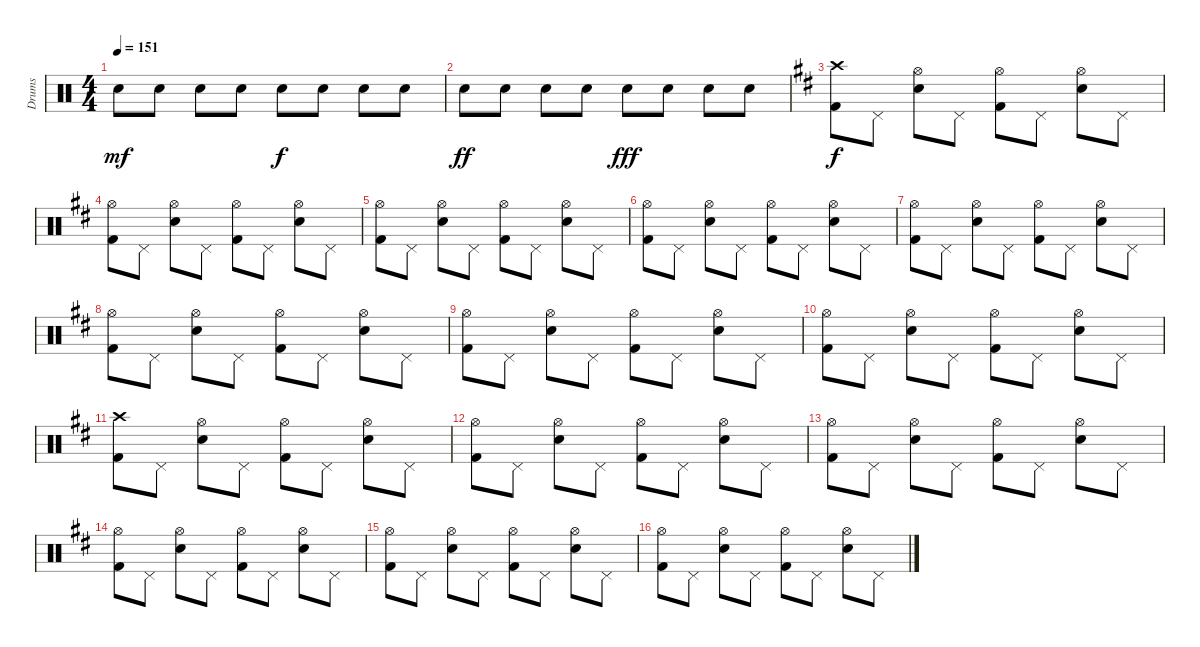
\track ("Drums" "Drums") {instrument percussion}
\staff {score}
\articulation defaults
\ts (4 4)
\tempo 151
\clef neutral
\ks c "Electric Snare (hit)".8{dy mf} "Electric Snare (hit)".8 "Electric Snare (hit)".8 "Electric Snare (hit)".8 "Electric Snare (hit)".8{dy f} "Electric Snare (hit)".8 "Electric Snare (hit)".8 "Electric Snare (hit)".8
|
"Electric Snare (hit)".8{dy ff} "Electric Snare (hit)".8 "Electric Snare (hit)".8 "Electric Snare (hit)".8 "Electric Snare (hit)".8{dy fff} "Electric Snare (hit)".8 "Electric Snare (hit)".8 "Electric Snare (hit)".8 |
\ks d
("Crash high (hit)" "Kick (hit) 2").8{dy f} "Pedal Hi-Hat (hit)".8 ("Hi-Hat (open)" "Electric Snare (hit)").8 "Pedal Hi-Hat (hit)".8 ("Hi-Hat (open)" "Kick (hit) 2").8 "Pedal Hi-Hat (hit)".8 ("Hi-Hat (open)" "Electric Snare (hit)").8 "Pedal Hi-Hat (hit)".8 |
("Hi-Hat (open)" "Kick (hit) 2").8 "Pedal Hi-Hat (hit)".8 ("Hi-Hat (open)" "Electric Snare (hit)").8 "Pedal Hi-Hat (hit)".8 ("Hi-Hat (open)" "Kick (hit) 2").8 "Pedal Hi-Hat (hit)".8 ("Hi-Hat (open)" "Electric Snare (hit)").8 "Pedal Hi-Hat (hit)".8 |
("Hi-Hat (open)" "Kick (hit) 2").8 "Pedal Hi-Hat (hit)".8 ("Hi-Hat (open)" "Electric Snare (hit)").8 "Pedal Hi-Hat (hit)".8 ("Hi-Hat (open)" "Kick (hit) 2").8 "Pedal Hi-Hat (hit)".8 ("Hi-Hat (open)" "Electric Snare (hit)").8 "Pedal Hi-Hat (hit)".8 |
("Hi-Hat (open)" "Kick (hit) 2").8 "Pedal Hi-Hat (hit)".8 ("Hi-Hat (open)" "Electric Snare (hit)").8 "Pedal Hi-Hat (hit)".8 ("Hi-Hat (open)" "Kick (hit) 2").8 "Pedal Hi-Hat (hit)".8 ("Hi-Hat (open)" "Electric Snare (hit)").8 "Pedal Hi-Hat (hit)".8 |
("Hi-Hat (open)" "Kick (hit) 2").8 "Pedal Hi-Hat (hit)".8 ("Hi-Hat (open)" "Electric Snare (hit)").8 "Pedal Hi-Hat (hit)".8 ("Hi-Hat (open)" "Kick (hit) 2").8 "Pedal Hi-Hat (hit)".8 ("Hi-Hat (open)" "Electric Snare (hit)").8 "Pedal Hi-Hat (hit)".8 |
("Hi-Hat (open)" "Kick (hit) 2").8 "Pedal Hi-Hat (hit)".8 ("Hi-Hat (open)" "Electric Snare (hit)").8 "Pedal Hi-Hat (hit)".8 ("Hi-Hat (open)" "Kick (hit) 2").8 "Pedal Hi-Hat (hit)".8 ("Hi-Hat (open)" "Electric Snare (hit)").8 "Pedal Hi-Hat (hit)".8 |
("Hi-Hat (open)" "Kick (hit) 2").8 "Pedal Hi-Hat (hit)".8 ("Hi-Hat (open)" "Electric Snare (hit)").8 "Pedal Hi-Hat (hit)".8 ("Hi-Hat (open)" "Kick (hit) 2").8 "Pedal Hi-Hat (hit)".8 ("Hi-Hat (open)" "Electric Snare (hit)").8 "Pedal Hi-Hat (hit)".8 |
("Hi-Hat (open)" "Kick (hit) 2").8 "Pedal Hi-Hat (hit)".8 ("Hi-Hat (open)" "Electric Snare (hit)").8 "Pedal Hi-Hat (hit)".8 ("Hi-Hat (open)" "Kick (hit) 2").8 "Pedal Hi-Hat (hit)".8 ("Hi-Hat (open)" "Electric Snare (hit)").8 "Pedal Hi-Hat (hit)".8 |
("Crash high (hit)" "Kick (hit) 2").8 "Pedal Hi-Hat (hit)".8 ("Hi-Hat (open)" "Electric Snare (hit)").8 "Pedal Hi-Hat (hit)".8 ("Hi-Hat (open)" "Kick (hit) 2").8 "Pedal Hi-Hat (hit)".8 ("Hi-Hat (open)" "Electric Snare (hit)").8 "Pedal Hi-Hat (hit)".8 |
("Hi-Hat (open)" "Kick (hit) 2").8 "Pedal Hi-Hat (hit)".8 ("Hi-Hat (open)" "Electric Snare (hit)").8 "Pedal Hi-Hat (hit)".8 ("Hi-Hat (open)" "Kick (hit) 2").8 "Pedal Hi-Hat (hit)".8 ("Hi-Hat (open)" "Electric Snare (hit)").8 "Pedal Hi-Hat (hit)".8 |
("Hi-Hat (open)" "Kick (hit) 2").8 "Pedal Hi-Hat (hit)".8 ("Hi-Hat (open)" "Electric Snare (hit)").8 "Pedal Hi-Hat (hit)".8 ("Hi-Hat (open)" "Kick (hit) 2").8 "Pedal Hi-Hat (hit)".8 ("Hi-Hat (open)" "Electric Snare (hit)").8 "Pedal Hi-Hat (hit)".8 |
("Hi-Hat (open)" "Kick (hit) 2").8 "Pedal Hi-Hat (hit)".8 ("Hi-Hat (open)" "Electric Snare (hit)").8 "Pedal Hi-Hat (hit)".8 ("Hi-Hat (open)" "Kick (hit) 2").8 "Pedal Hi-Hat (hit)".8 ("Hi-Hat (open)" "Electric Snare (hit)").8 "Pedal Hi-Hat (hit)".8 |
("Hi-Hat (open)" "Kick (hit) 2").8 "Pedal Hi-Hat (hit)".8 ("Hi-Hat (open)" "Electric Snare (hit)").8 "Pedal Hi-Hat (hit)".8 ("Hi-Hat (open)" "Kick (hit) 2").8 "Pedal Hi-Hat (hit)".8 ("Hi-Hat (open)" "Electric Snare (hit)").8 "Pedal Hi-Hat (hit)".8 |
("Hi-Hat (open)" "Kick (hit) 2").8 "Pedal Hi-Hat (hit)".8 ("Hi-Hat (open)" "Electric Snare (hit)").8 "Pedal Hi-Hat (hit)".8 ("Hi-Hat (open)" "Kick (hit) 2").8 "Pedal Hi-Hat (hit)".8 ("Hi-Hat (open)" "Electric Snare (hit)").8 "Pedal Hi-Hat (hit)".8
